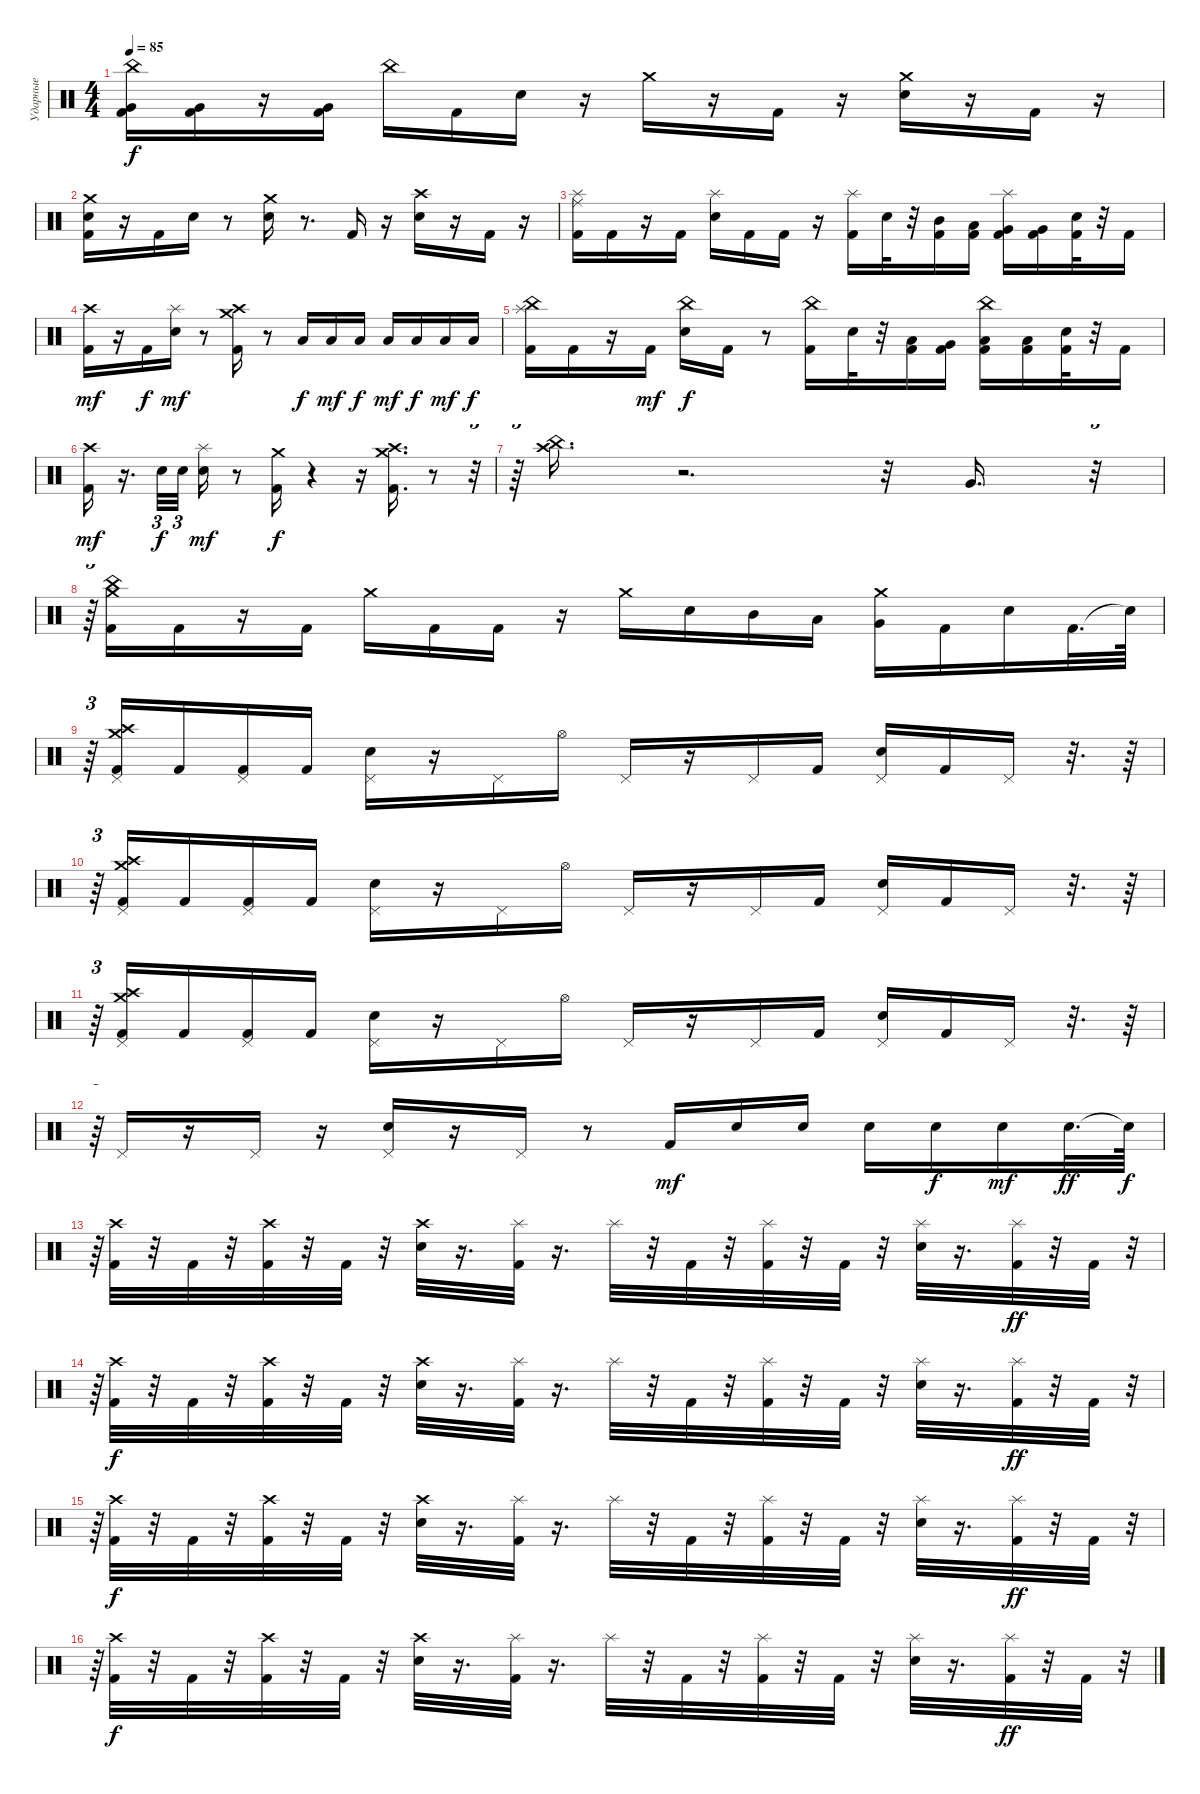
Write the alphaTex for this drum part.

\track ("Ударные" "Ударные") {instrument percussion}
\staff {score}
\articulation defaults
\ts (4 4)
\tempo 85
\clef neutral
\ks c
("China (hit)" "Kick (hit) 2" "Very Low Tom (hit)").16{dy f} ("Kick (hit) 2" "Very Low Tom (hit)").16 r.16 ("Very Low Tom (hit)" "Kick (hit) 2").16 "China (hit)".16 "Kick (hit) 2".16 "Snare (hit) 2".16 r.16 "Crash medium (hit)".16 r.16 "Kick (hit) 2".16 r.16 ("Crash medium (hit)" "Snare (hit) 2").16 r.16 "Kick (hit) 2".16 r.16 |
("Crash medium (hit)" "Snare (hit) 2" "Kick (hit) 2").16 r.16 "Kick (hit) 2".16 "Snare (hit) 2".16 r.8 ("Crash medium (hit)" "Snare (hit) 2").16 r.8{d} "Kick (hit) 2".16 r.16 ("Crash high (hit)" "Snare (hit) 2").16 r.16 "Kick (hit) 2".16 r.16 |
("Ride (middle)" "Kick (hit) 2" "Splash (hit)").16 "Kick (hit) 2".16 r.16 "Kick (hit) 2".16 ("Splash (hit)" "Snare (hit) 2").16 "Kick (hit) 2".16 "Kick (hit) 2".16 r.16 ("Splash (hit)" "Kick (hit) 2").16 "Electric Snare (hit)".32 r.32 ("Mid Tom (hit)" "Kick (hit) 2").16 ("Low Tom (hit)" "Kick (hit) 2").16 ("Splash (hit)" "Very Low Tom (hit)" "Kick (hit) 2").16 ("Very Low Tom (hit)" "Kick (hit) 2").16 ("Electric Snare (hit)" "Kick (hit) 2").32 r.32 "Kick (hit) 2".16 |
("Kick (hit) 2" "Crash high (hit)").16{dy mf} r.16 "Kick (hit) 2".16{dy f} ("Splash (hit)" "Snare (hit) 2").16{dy mf} r.8 ("Crash medium (hit)" "Kick (hit) 2" "Crash high (hit)").16 r.8 "Low Floor Tom (hit)".16{dy f} "Low Floor Tom (hit)".16{dy mf} "Low Floor Tom (hit)".16{dy f} "Low Floor Tom (hit)".16{dy mf} "Low Floor Tom (hit)".16{dy f} "Low Floor Tom (hit)".16{dy mf} "Low Floor Tom (hit)".16{dy f} |
("China (hit)" "Splash (hit)" "Kick (hit) 2").16 "Kick (hit) 2".16 r.16 "Kick (hit) 2".16{dy mf} ("Snare (hit) 2" "China (hit)").16{dy f} "Kick (hit) 2".16 r.8 ("Kick (hit) 2" "China (hit)").16 "Electric Snare (hit)".32 r.32 ("Low Tom (hit)" "Kick (hit) 2").16 ("Very Low Tom (hit)" "Kick (hit) 2").16 ("Kick (hit) 2" "Low Floor Tom (hit)" "China (hit)").16 ("Low Floor Tom (hit)" "Kick (hit) 2").16 ("Electric Snare (hit)" "Kick (hit) 2").32 r.32 "Kick (hit) 2".16 |
("Crash high (hit)" "Kick (hit) 2").16{dy mf} r.16{d} "Snare (hit) 2".32{tu (3 2) dy f} "Snare (hit) 2".32{tu (3 2) beam splitsecondary} ("Splash (hit)" "Snare (hit) 2").16{dy mf} r.8 ("Crash medium (hit)" "Kick (hit) 2").16{dy f} r.4 r.16 ("Crash medium (hit)" "Crash high (hit)" "Kick (hit) 2").16{d} r.8 r.32{tu (3 2)} |
r.64{tu (3 2)} ("China (hit)" "Crash high (hit)").16{d} r.2{d} r.32 "Very Low Tom (hit)".16{d} r.32{tu (3 2)} |
r.64{tu (3 2)} ("Crash medium (hit)" "China (hit)" "Kick (hit) 2").16 "Kick (hit) 2".16 r.16 "Kick (hit) 2".16 "Crash medium (hit)".16 "Kick (hit) 2".16 "Kick (hit) 2".16 r.16 "Crash medium (hit)".16 "Snare (hit) 2".16 "Mid Tom (hit)".16 "Low Tom (hit)".16 ("Very Low Tom (hit)" "Crash medium (hit)").16 "Kick (hit) 2".16 "Snare (hit) 2".16 "Kick (hit) 2".32{d} "Snare (hit)"{t}.64 |
r.64{tu (3 2)} ("Crash high (hit)" "Crash medium (hit)" "Kick (hit) 2" "Pedal Hi-Hat (hit)").16 "Kick (hit) 2".16 ("Kick (hit) 2" "Pedal Hi-Hat (hit)").16 "Kick (hit) 2".16 ("Snare (hit) 2" "Pedal Hi-Hat (hit)").16 r.16 "Pedal Hi-Hat (hit)".16 "Hi-Hat (open)".16 "Pedal Hi-Hat (hit)".16 r.16 "Pedal Hi-Hat (hit)".16 "Kick (hit) 2".16 ("Snare (hit) 2" "Pedal Hi-Hat (hit)").16 "Kick (hit) 2".16 "Pedal Hi-Hat (hit)".16 r.32{d} r.64 |
r.64{tu (3 2)} ("Crash high (hit)" "Crash medium (hit)" "Kick (hit) 2" "Pedal Hi-Hat (hit)").16 "Kick (hit) 2".16 ("Kick (hit) 2" "Pedal Hi-Hat (hit)").16 "Kick (hit) 2".16 ("Snare (hit) 2" "Pedal Hi-Hat (hit)").16 r.16 "Pedal Hi-Hat (hit)".16 "Hi-Hat (open)".16 "Pedal Hi-Hat (hit)".16 r.16 "Pedal Hi-Hat (hit)".16 "Kick (hit) 2".16 ("Snare (hit) 2" "Pedal Hi-Hat (hit)").16 "Kick (hit) 2".16 "Pedal Hi-Hat (hit)".16 r.32{d} r.64 |
r.64{tu (3 2)} ("Crash high (hit)" "Crash medium (hit)" "Kick (hit) 2" "Pedal Hi-Hat (hit)").16 "Kick (hit) 2".16 ("Kick (hit) 2" "Pedal Hi-Hat (hit)").16 "Kick (hit) 2".16 ("Snare (hit) 2" "Pedal Hi-Hat (hit)").16 r.16 "Pedal Hi-Hat (hit)".16 "Hi-Hat (open)".16 "Pedal Hi-Hat (hit)".16 r.16 "Pedal Hi-Hat (hit)".16 "Kick (hit) 2".16 ("Snare (hit) 2" "Pedal Hi-Hat (hit)").16 "Kick (hit) 2".16 "Pedal Hi-Hat (hit)".16 r.32{d} r.64 |
r.64{tu (3 2)} "Pedal Hi-Hat (hit)".16 r.16 "Pedal Hi-Hat (hit)".16 r.16 ("Electric Snare (hit)" "Pedal Hi-Hat (hit)").16 r.16 "Pedal Hi-Hat (hit)".16 r.8 "Kick (hit) 2".16{dy mf} "Electric Snare (hit)".16 "Electric Snare (hit)".16 "Electric Snare (hit)".16 "Electric Snare (hit)".16{dy f} "Electric Snare (hit)".16{dy mf} "Electric Snare (hit)".32{d dy ff} "Snare (hit)"{t}.64{dy f} |
r.64{tu (3 2)} ("Crash high (hit)" "Kick (hit) 2").32 r.32 "Kick (hit) 2".32 r.32 ("Crash high (hit)" "Kick (hit) 2").32 r.32 "Kick (hit) 2".32 r.32 ("Crash high (hit)" "Snare (hit) 2").32 r.16{d} ("Splash (hit)" "Kick (hit) 2").32 r.16{d} "Splash (hit)".32 r.32 "Kick (hit) 2".32 r.32 ("Splash (hit)" "Kick (hit) 2").32 r.32 "Kick (hit) 2".32 r.32 ("Splash (hit)" "Snare (hit) 2").32 r.16{d} ("Splash (hit)" "Kick (hit) 2").32{dy ff} r.32 "Kick (hit) 2".32 r.32{tu (3 2)} |
r.64{tu (3 2)} ("Crash high (hit)" "Kick (hit) 2").32{dy f} r.32 "Kick (hit) 2".32 r.32 ("Crash high (hit)" "Kick (hit) 2").32 r.32 "Kick (hit) 2".32 r.32 ("Crash high (hit)" "Snare (hit) 2").32 r.16{d} ("Splash (hit)" "Kick (hit) 2").32 r.16{d} "Splash (hit)".32 r.32 "Kick (hit) 2".32 r.32 ("Splash (hit)" "Kick (hit) 2").32 r.32 "Kick (hit) 2".32 r.32 ("Splash (hit)" "Snare (hit) 2").32 r.16{d} ("Splash (hit)" "Kick (hit) 2").32{dy ff} r.32 "Kick (hit) 2".32 r.32{tu (3 2)} |
r.64{tu (3 2)} ("Crash high (hit)" "Kick (hit) 2").32{dy f} r.32 "Kick (hit) 2".32 r.32 ("Crash high (hit)" "Kick (hit) 2").32 r.32 "Kick (hit) 2".32 r.32 ("Crash high (hit)" "Snare (hit) 2").32 r.16{d} ("Splash (hit)" "Kick (hit) 2").32 r.16{d} "Splash (hit)".32 r.32 "Kick (hit) 2".32 r.32 ("Splash (hit)" "Kick (hit) 2").32 r.32 "Kick (hit) 2".32 r.32 ("Splash (hit)" "Snare (hit) 2").32 r.16{d} ("Splash (hit)" "Kick (hit) 2").32{dy ff} r.32 "Kick (hit) 2".32 r.32{tu (3 2)} |
r.64{tu (3 2)} ("Crash high (hit)" "Kick (hit) 2").32{dy f} r.32 "Kick (hit) 2".32 r.32 ("Crash high (hit)" "Kick (hit) 2").32 r.32 "Kick (hit) 2".32 r.32 ("Crash high (hit)" "Snare (hit) 2").32 r.16{d} ("Splash (hit)" "Kick (hit) 2").32 r.16{d} "Splash (hit)".32 r.32 "Kick (hit) 2".32 r.32 ("Splash (hit)" "Kick (hit) 2").32 r.32 "Kick (hit) 2".32 r.32 ("Splash (hit)" "Snare (hit) 2").32 r.16{d} ("Splash (hit)" "Kick (hit) 2").32{dy ff} r.32 "Kick (hit) 2".32 r.32{tu (3 2)}
